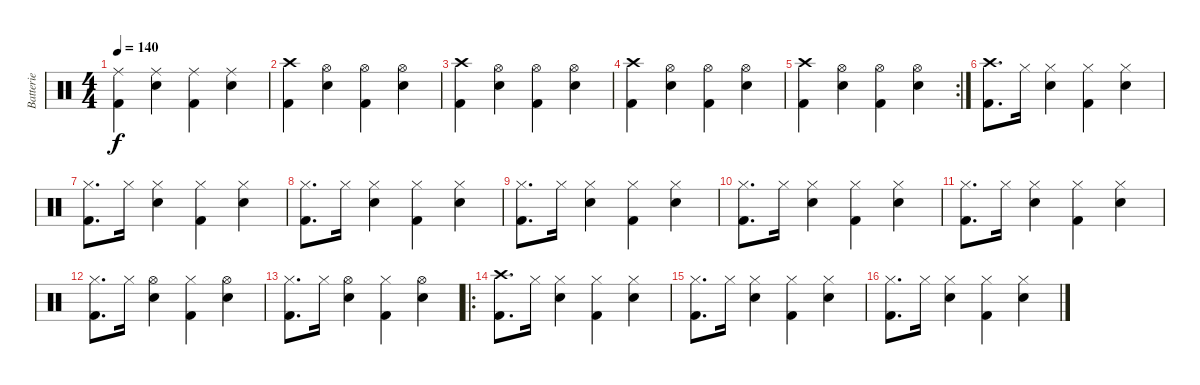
\track ("Batterie" "Batterie") {instrument percussion}
\staff {score}
\articulation defaults
\ts (4 4)
\tempo 140
\clef neutral
\ks c
("Ride (middle)" "Kick (hit) 2").4{dy f} ("Ride (middle)" "Electric Snare (hit)").4 ("Ride (middle)" "Kick (hit) 2").4 ("Ride (middle)" "Electric Snare (hit)").4 |
("Crash high (hit)" "Kick (hit) 2").4 ("Hi-Hat (open)" "Electric Snare (hit)").4 ("Hi-Hat (open)" "Kick (hit) 2").4 ("Hi-Hat (open)" "Electric Snare (hit)").4 |
("Crash high (hit)" "Kick (hit) 2").4 ("Hi-Hat (open)" "Electric Snare (hit)").4 ("Hi-Hat (open)" "Kick (hit) 2").4 ("Hi-Hat (open)" "Electric Snare (hit)").4 |
("Crash high (hit)" "Kick (hit) 2").4 ("Hi-Hat (open)" "Electric Snare (hit)").4 ("Hi-Hat (open)" "Kick (hit) 2").4 ("Hi-Hat (open)" "Electric Snare (hit)").4 |
\rc 2
("Crash high (hit)" "Kick (hit) 2").4 ("Hi-Hat (open)" "Electric Snare (hit)").4 ("Hi-Hat (open)" "Kick (hit) 2").4 ("Hi-Hat (open)" "Electric Snare (hit)").4 |
("Crash high (hit)" "Kick (hit) 2").8{d} "Hi-Hat (closed)".16 ("Hi-Hat (closed)" "Electric Snare (hit)").4 ("Hi-Hat (closed)" "Kick (hit) 2").4 ("Hi-Hat (closed)" "Electric Snare (hit)").4 |
("Hi-Hat (closed)" "Kick (hit) 2").8{d} "Hi-Hat (closed)".16 ("Hi-Hat (closed)" "Electric Snare (hit)").4 ("Hi-Hat (closed)" "Kick (hit) 2").4 ("Hi-Hat (closed)" "Electric Snare (hit)").4 |
("Hi-Hat (closed)" "Kick (hit) 2").8{d} "Hi-Hat (closed)".16 ("Hi-Hat (closed)" "Electric Snare (hit)").4 ("Hi-Hat (closed)" "Kick (hit) 2").4 ("Hi-Hat (closed)" "Electric Snare (hit)").4 |
("Hi-Hat (closed)" "Kick (hit) 2").8{d} "Hi-Hat (closed)".16 ("Hi-Hat (closed)" "Electric Snare (hit)").4 ("Hi-Hat (closed)" "Kick (hit) 2").4 ("Hi-Hat (closed)" "Electric Snare (hit)").4 |
("Hi-Hat (closed)" "Kick (hit) 2").8{d} "Hi-Hat (closed)".16 ("Hi-Hat (closed)" "Electric Snare (hit)").4 ("Hi-Hat (closed)" "Kick (hit) 2").4 ("Hi-Hat (closed)" "Electric Snare (hit)").4 |
("Hi-Hat (closed)" "Kick (hit) 2").8{d} "Hi-Hat (closed)".16 ("Hi-Hat (closed)" "Electric Snare (hit)").4 ("Hi-Hat (closed)" "Kick (hit) 2").4 ("Hi-Hat (closed)" "Electric Snare (hit)").4 |
("Hi-Hat (closed)" "Kick (hit) 2").8{d} "Hi-Hat (closed)".16 ("Hi-Hat (open)" "Electric Snare (hit)").4 ("Hi-Hat (closed)" "Kick (hit) 2").4 ("Hi-Hat (open)" "Electric Snare (hit)").4 |
("Hi-Hat (closed)" "Kick (hit) 2").8{d} "Hi-Hat (closed)".16 ("Hi-Hat (open)" "Electric Snare (hit)").4 ("Hi-Hat (closed)" "Kick (hit) 2").4 ("Hi-Hat (open)" "Electric Snare (hit)").4 |
\ro
("Crash high (hit)" "Kick (hit) 2").8{d} "Hi-Hat (closed)".16 ("Hi-Hat (closed)" "Electric Snare (hit)").4 ("Hi-Hat (closed)" "Kick (hit) 2").4 ("Hi-Hat (closed)" "Electric Snare (hit)").4 |
("Hi-Hat (closed)" "Kick (hit) 2").8{d} "Hi-Hat (closed)".16 ("Hi-Hat (closed)" "Electric Snare (hit)").4 ("Hi-Hat (closed)" "Kick (hit) 2").4 ("Hi-Hat (closed)" "Electric Snare (hit)").4 |
("Hi-Hat (closed)" "Kick (hit) 2").8{d} "Hi-Hat (closed)".16 ("Hi-Hat (closed)" "Electric Snare (hit)").4 ("Hi-Hat (closed)" "Kick (hit) 2").4 ("Hi-Hat (closed)" "Electric Snare (hit)").4
